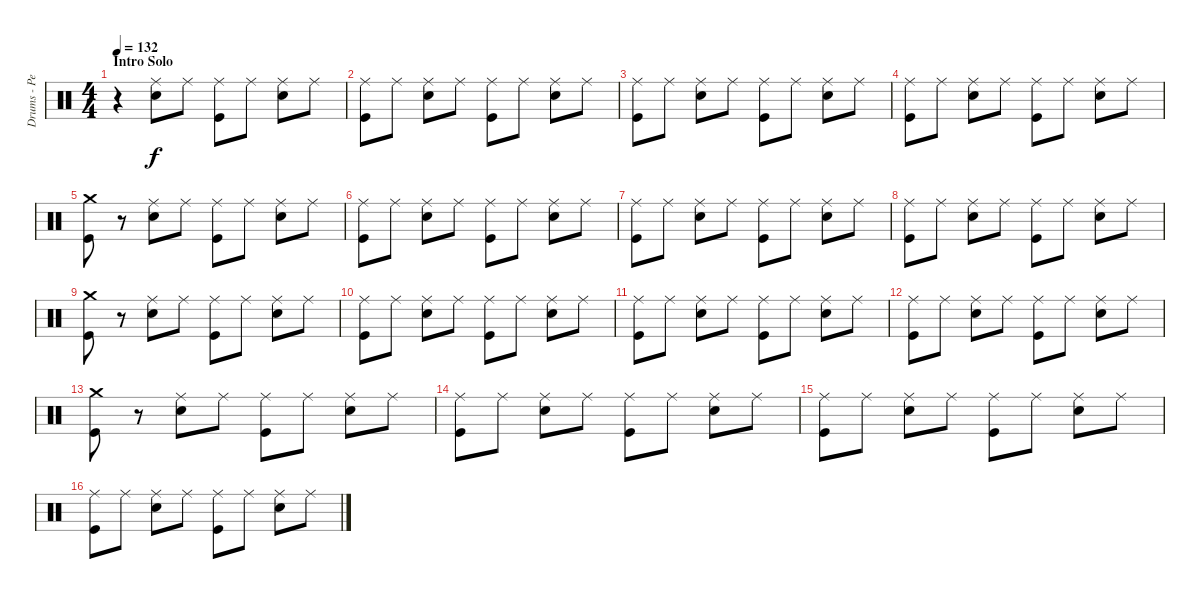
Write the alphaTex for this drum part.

\track ("Drums - Pete Gill" "Drums - Pe") {instrument percussion}
\staff {score}
\articulation defaults
\ts (4 4)
\section ("" "Intro Solo")
\tempo 132
\clef neutral
\ks c
r.4{dy f} ("Ride (middle)" "Snare (hit) 2").8 "Ride (middle)".8 ("Ride (middle)" "Kick (hit)").8 "Ride (middle)".8 ("Ride (middle)" "Snare (hit) 2").8 "Ride (middle)".8 |
("Ride (middle)" "Kick (hit)").8 "Ride (middle)".8 ("Ride (middle)" "Snare (hit) 2").8 "Ride (middle)".8 ("Ride (middle)" "Kick (hit)").8 "Ride (middle)".8 ("Ride (middle)" "Snare (hit) 2").8 "Ride (middle)".8 |
("Ride (middle)" "Kick (hit)").8 "Ride (middle)".8 ("Ride (middle)" "Snare (hit) 2").8 "Ride (middle)".8 ("Ride (middle)" "Kick (hit)").8 "Ride (middle)".8 ("Ride (middle)" "Snare (hit) 2").8 "Ride (middle)".8 |
("Ride (middle)" "Kick (hit)").8 "Ride (middle)".8 ("Ride (middle)" "Snare (hit) 2").8 "Ride (middle)".8 ("Ride (middle)" "Kick (hit)").8 "Ride (middle)".8 ("Ride (middle)" "Snare (hit) 2").8 "Ride (middle)".8 |
("Crash medium (hit)" "Kick (hit)").8 r.8 ("Ride (middle)" "Snare (hit) 2").8 "Ride (middle)".8 ("Ride (middle)" "Kick (hit)").8 "Ride (middle)".8 ("Ride (middle)" "Snare (hit) 2").8 "Ride (middle)".8 |
("Ride (middle)" "Kick (hit)").8 "Ride (middle)".8 ("Ride (middle)" "Snare (hit) 2").8 "Ride (middle)".8 ("Ride (middle)" "Kick (hit)").8 "Ride (middle)".8 ("Ride (middle)" "Snare (hit) 2").8 "Ride (middle)".8 |
("Ride (middle)" "Kick (hit)").8 "Ride (middle)".8 ("Ride (middle)" "Snare (hit) 2").8 "Ride (middle)".8 ("Ride (middle)" "Kick (hit)").8 "Ride (middle)".8 ("Ride (middle)" "Snare (hit) 2").8 "Ride (middle)".8 |
("Ride (middle)" "Kick (hit)").8 "Ride (middle)".8 ("Ride (middle)" "Snare (hit) 2").8 "Ride (middle)".8 ("Ride (middle)" "Kick (hit)").8 "Ride (middle)".8 ("Ride (middle)" "Snare (hit) 2").8 "Ride (middle)".8 |
("Crash medium (hit)" "Kick (hit)").8 r.8 ("Ride (middle)" "Snare (hit) 2").8 "Ride (middle)".8 ("Ride (middle)" "Kick (hit)").8 "Ride (middle)".8 ("Ride (middle)" "Snare (hit) 2").8 "Ride (middle)".8 |
("Ride (middle)" "Kick (hit)").8 "Ride (middle)".8 ("Ride (middle)" "Snare (hit) 2").8 "Ride (middle)".8 ("Ride (middle)" "Kick (hit)").8 "Ride (middle)".8 ("Ride (middle)" "Snare (hit) 2").8 "Ride (middle)".8 |
("Ride (middle)" "Kick (hit)").8 "Ride (middle)".8 ("Ride (middle)" "Snare (hit) 2").8 "Ride (middle)".8 ("Ride (middle)" "Kick (hit)").8 "Ride (middle)".8 ("Ride (middle)" "Snare (hit) 2").8 "Ride (middle)".8 |
("Ride (middle)" "Kick (hit)").8 "Ride (middle)".8 ("Ride (middle)" "Snare (hit) 2").8 "Ride (middle)".8 ("Ride (middle)" "Kick (hit)").8 "Ride (middle)".8 ("Ride (middle)" "Snare (hit) 2").8 "Ride (middle)".8 |
("Crash medium (hit)" "Kick (hit)").8 r.8 ("Ride (middle)" "Snare (hit) 2").8 "Ride (middle)".8 ("Ride (middle)" "Kick (hit)").8 "Ride (middle)".8 ("Ride (middle)" "Snare (hit) 2").8 "Ride (middle)".8 |
("Ride (middle)" "Kick (hit)").8 "Ride (middle)".8 ("Ride (middle)" "Snare (hit) 2").8 "Ride (middle)".8 ("Ride (middle)" "Kick (hit)").8 "Ride (middle)".8 ("Ride (middle)" "Snare (hit) 2").8 "Ride (middle)".8 |
("Ride (middle)" "Kick (hit)").8 "Ride (middle)".8 ("Ride (middle)" "Snare (hit) 2").8 "Ride (middle)".8 ("Ride (middle)" "Kick (hit)").8 "Ride (middle)".8 ("Ride (middle)" "Snare (hit) 2").8 "Ride (middle)".8 |
("Ride (middle)" "Kick (hit)").8 "Ride (middle)".8 ("Ride (middle)" "Snare (hit) 2").8 "Ride (middle)".8 ("Ride (middle)" "Kick (hit)").8 "Ride (middle)".8 ("Ride (middle)" "Snare (hit) 2").8 "Ride (middle)".8
